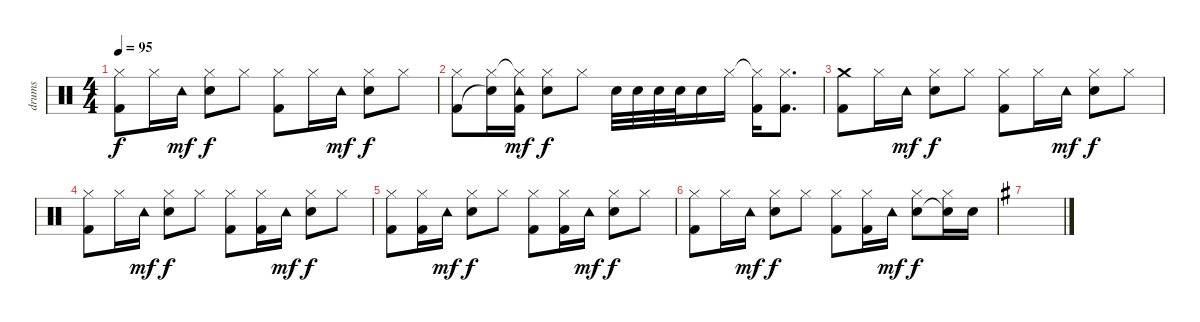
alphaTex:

\track ("drums" "drums") {instrument percussion}
\staff {score}
\articulation defaults
\ts (4 4)
\tempo 95
\clef neutral
\ks c
("Hi-Hat (closed)" "Kick (hit) 2").8{dy f} "Hi-Hat (closed)".16 "Tambourine (hit)".16{dy mf} ("Hi-Hat (closed)" "Snare (hit) 2").8{dy f} "Hi-Hat (closed)".8 ("Hi-Hat (closed)" "Kick (hit) 2").8 "Hi-Hat (closed)".16 "Tambourine (hit)".16{dy mf} ("Hi-Hat (closed)" "Snare (hit) 2").8{dy f} "Hi-Hat (closed)".8 |
("Hi-Hat (closed)" "Kick (hit) 2").8 ("Hi-Hat (closed)" "Snare (hit)"{t}).16 ("Hi-Hat (closed)"{t} "Tambourine (hit)" "Kick (hit) 2").16{dy mf} ("Hi-Hat (closed)" "Snare (hit) 2").8{dy f} "Hi-Hat (closed)".8 "Snare (hit) 2".32 "Snare (hit) 2".32 "Snare (hit) 2".32 "Snare (hit) 2".32 "Snare (hit) 2".16 "Hi-Hat (closed)".16 ("Hi-Hat (closed)"{t} "Kick (hit) 2").16 ("Hi-Hat (closed)" "Kick (hit) 2").8{d} |
("Crash medium (hit)" "Kick (hit) 2").8 "Hi-Hat (closed)".16 "Tambourine (hit)".16{dy mf} ("Hi-Hat (closed)" "Snare (hit) 2").8{dy f} "Hi-Hat (closed)".8 ("Hi-Hat (closed)" "Kick (hit) 2").8 "Hi-Hat (closed)".16 "Tambourine (hit)".16{dy mf} ("Hi-Hat (closed)" "Snare (hit) 2").8{dy f} "Hi-Hat (closed)".8 |
("Hi-Hat (closed)" "Kick (hit) 2").8 "Hi-Hat (closed)".16 "Tambourine (hit)".16{dy mf} ("Hi-Hat (closed)" "Snare (hit) 2").8{dy f} "Hi-Hat (closed)".8 ("Hi-Hat (closed)" "Kick (hit) 2").8 ("Hi-Hat (closed)" "Kick (hit) 2").16 "Tambourine (hit)".16{dy mf} ("Hi-Hat (closed)" "Snare (hit) 2").8{dy f} "Hi-Hat (closed)".8 |
("Hi-Hat (closed)" "Kick (hit) 2").8 ("Hi-Hat (closed)" "Kick (hit) 2").16 "Tambourine (hit)".16{dy mf} ("Hi-Hat (closed)" "Snare (hit) 2").8{dy f} "Hi-Hat (closed)".8 ("Hi-Hat (closed)" "Kick (hit) 2").8 ("Hi-Hat (closed)" "Kick (hit) 2").16 "Tambourine (hit)".16{dy mf} ("Hi-Hat (closed)" "Snare (hit) 2").8{dy f} "Hi-Hat (closed)".8 |
("Hi-Hat (closed)" "Kick (hit) 2").8 "Hi-Hat (closed)".16 "Tambourine (hit)".16{dy mf} ("Hi-Hat (closed)" "Snare (hit) 2").8{dy f} "Hi-Hat (closed)".8 ("Hi-Hat (closed)" "Kick (hit) 2").8 ("Hi-Hat (closed)" "Kick (hit) 2").16 "Tambourine (hit)".16{dy mf} ("Hi-Hat (closed)" "Snare (hit) 2").8{dy f} ("Hi-Hat (closed)" "Snare (hit)"{t}).16 "Snare (hit) 2".16 |
\ks g
